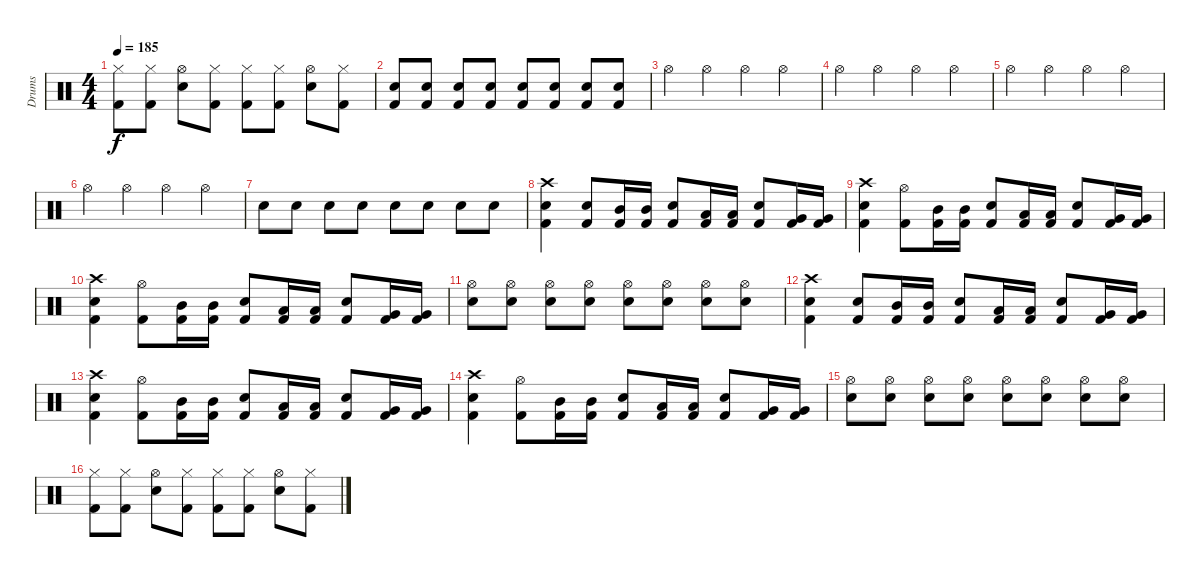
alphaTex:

\track ("Drums" "Drums") {instrument percussion}
\staff {score}
\articulation defaults
\ts (4 4)
\tempo 185
\clef neutral
\ks c
("Hi-Hat (closed)" "Kick (hit) 2").8{dy f} ("Hi-Hat (closed)" "Kick (hit) 2").8 ("Hi-Hat (open)" "Snare (hit) 2").8 ("Hi-Hat (closed)" "Kick (hit) 2").8 ("Hi-Hat (closed)" "Kick (hit) 2").8 ("Hi-Hat (closed)" "Kick (hit) 2").8 ("Hi-Hat (open)" "Snare (hit) 2").8 ("Hi-Hat (closed)" "Kick (hit) 2").8 |
("Snare (hit) 2" "Kick (hit) 2").8 ("Snare (hit) 2" "Kick (hit) 2").8 ("Snare (hit) 2" "Kick (hit) 2").8 ("Snare (hit) 2" "Kick (hit) 2").8 ("Snare (hit) 2" "Kick (hit) 2").8 ("Snare (hit) 2" "Kick (hit) 2").8 ("Snare (hit) 2" "Kick (hit) 2").8 ("Snare (hit) 2" "Kick (hit) 2").8 |
"Hi-Hat (open)".4 "Hi-Hat (open)".4 "Hi-Hat (open)".4 "Hi-Hat (open)".4 |
"Hi-Hat (open)".4 "Hi-Hat (open)".4 "Hi-Hat (open)".4 "Hi-Hat (open)".4 |
"Hi-Hat (open)".4 "Hi-Hat (open)".4 "Hi-Hat (open)".4 "Hi-Hat (open)".4 |
"Hi-Hat (open)".4 "Hi-Hat (open)".4 "Hi-Hat (open)".4 "Hi-Hat (open)".4 |
"Snare (hit) 2".8 "Snare (hit) 2".8 "Snare (hit) 2".8 "Snare (hit) 2".8 "Snare (hit) 2".8 "Snare (hit) 2".8 "Snare (hit) 2".8 "Snare (hit) 2".8 |
("Crash high (hit)" "Snare (hit) 2" "Kick (hit) 2").4 ("Snare (hit) 2" "Kick (hit) 2").8 ("Mid Tom (hit)" "Kick (hit) 2").16 ("Mid Tom (hit)" "Kick (hit) 2").16 ("Snare (hit) 2" "Kick (hit) 2").8 ("Low Tom (hit)" "Kick (hit) 2").16 ("Low Tom (hit)" "Kick (hit) 2").16 ("Snare (hit) 2" "Kick (hit) 2").8 ("Very Low Tom (hit)" "Kick (hit) 2").16 ("Very Low Tom (hit)" "Kick (hit) 2").16 |
("Crash high (hit)" "Snare (hit) 2" "Kick (hit) 2").4 ("Hi-Hat (open)" "Kick (hit) 2").8 ("Mid Tom (hit)" "Kick (hit) 2").16 ("Mid Tom (hit)" "Kick (hit) 2").16 ("Snare (hit) 2" "Kick (hit) 2").8 ("Low Tom (hit)" "Kick (hit) 2").16 ("Low Tom (hit)" "Kick (hit) 2").16 ("Snare (hit) 2" "Kick (hit) 2").8 ("Very Low Tom (hit)" "Kick (hit) 2").16 ("Very Low Tom (hit)" "Kick (hit) 2").16 |
("Crash high (hit)" "Snare (hit) 2" "Kick (hit) 2").4 ("Hi-Hat (open)" "Kick (hit) 2").8 ("Mid Tom (hit)" "Kick (hit) 2").16 ("Mid Tom (hit)" "Kick (hit) 2").16 ("Snare (hit) 2" "Kick (hit) 2").8 ("Low Tom (hit)" "Kick (hit) 2").16 ("Low Tom (hit)" "Kick (hit) 2").16 ("Snare (hit) 2" "Kick (hit) 2").8 ("Very Low Tom (hit)" "Kick (hit) 2").16 ("Very Low Tom (hit)" "Kick (hit) 2").16 |
("Hi-Hat (open)" "Snare (hit) 2").8 ("Hi-Hat (open)" "Snare (hit) 2").8 ("Hi-Hat (open)" "Snare (hit) 2").8 ("Hi-Hat (open)" "Snare (hit) 2").8 ("Hi-Hat (open)" "Snare (hit) 2").8 ("Hi-Hat (open)" "Snare (hit) 2").8 ("Hi-Hat (open)" "Snare (hit) 2").8 ("Hi-Hat (open)" "Snare (hit) 2").8 |
("Crash high (hit)" "Snare (hit) 2" "Kick (hit) 2").4 ("Snare (hit) 2" "Kick (hit) 2").8 ("Mid Tom (hit)" "Kick (hit) 2").16 ("Mid Tom (hit)" "Kick (hit) 2").16 ("Snare (hit) 2" "Kick (hit) 2").8 ("Low Tom (hit)" "Kick (hit) 2").16 ("Low Tom (hit)" "Kick (hit) 2").16 ("Snare (hit) 2" "Kick (hit) 2").8 ("Very Low Tom (hit)" "Kick (hit) 2").16 ("Very Low Tom (hit)" "Kick (hit) 2").16 |
("Crash high (hit)" "Snare (hit) 2" "Kick (hit) 2").4 ("Hi-Hat (open)" "Kick (hit) 2").8 ("Mid Tom (hit)" "Kick (hit) 2").16 ("Mid Tom (hit)" "Kick (hit) 2").16 ("Snare (hit) 2" "Kick (hit) 2").8 ("Low Tom (hit)" "Kick (hit) 2").16 ("Low Tom (hit)" "Kick (hit) 2").16 ("Snare (hit) 2" "Kick (hit) 2").8 ("Very Low Tom (hit)" "Kick (hit) 2").16 ("Very Low Tom (hit)" "Kick (hit) 2").16 |
("Crash high (hit)" "Snare (hit) 2" "Kick (hit) 2").4 ("Hi-Hat (open)" "Kick (hit) 2").8 ("Mid Tom (hit)" "Kick (hit) 2").16 ("Mid Tom (hit)" "Kick (hit) 2").16 ("Snare (hit) 2" "Kick (hit) 2").8 ("Low Tom (hit)" "Kick (hit) 2").16 ("Low Tom (hit)" "Kick (hit) 2").16 ("Snare (hit) 2" "Kick (hit) 2").8 ("Very Low Tom (hit)" "Kick (hit) 2").16 ("Very Low Tom (hit)" "Kick (hit) 2").16 |
("Hi-Hat (open)" "Snare (hit) 2").8 ("Hi-Hat (open)" "Snare (hit) 2").8 ("Hi-Hat (open)" "Snare (hit) 2").8 ("Hi-Hat (open)" "Snare (hit) 2").8 ("Hi-Hat (open)" "Snare (hit) 2").8 ("Hi-Hat (open)" "Snare (hit) 2").8 ("Hi-Hat (open)" "Snare (hit) 2").8 ("Hi-Hat (open)" "Snare (hit) 2").8 |
("Hi-Hat (closed)" "Kick (hit) 2").8 ("Hi-Hat (closed)" "Kick (hit) 2").8 ("Hi-Hat (open)" "Snare (hit) 2").8 ("Hi-Hat (closed)" "Kick (hit) 2").8 ("Hi-Hat (closed)" "Kick (hit) 2").8 ("Hi-Hat (closed)" "Kick (hit) 2").8 ("Hi-Hat (open)" "Snare (hit) 2").8 ("Hi-Hat (closed)" "Kick (hit) 2").8
